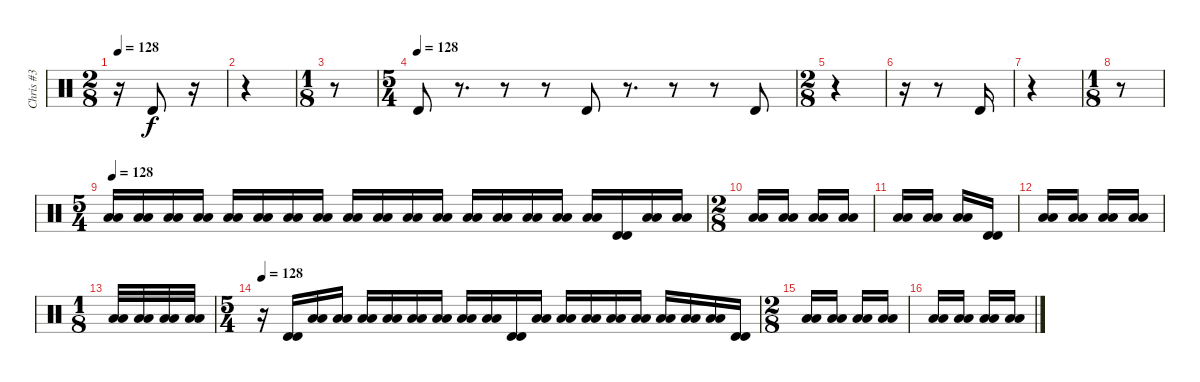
\track ("Chris #3" "Chris #3") {instrument percussion}
\staff {score}
\articulation defaults
\ts (2 8)
\tempo 128
\clef neutral
\ks c
r.16{dy f} "Timbale high (hit)".8 r.16 |
r.4 |
\ts (1 8)
r.8 |
\ts (5 4)
\tempo (128)
"Timbale high (hit)".8 r.8{d} r.8 r.8 "Timbale high (hit)".8 r.8{d} r.8 r.8 "Timbale high (hit)".8 |
\ts (2 8)
r.4 |
r.16 r.8 "Timbale high (hit)".16 |
r.4 |
\ts (1 8)
r.8 |
\ts (5 4)
\tempo 128
("Low Floor Tom (hit)" "Low Floor Tom (hit)").16 ("Low Floor Tom (hit)" "Low Floor Tom (hit)").16 ("Low Floor Tom (hit)" "Low Floor Tom (hit)").16 ("Low Floor Tom (hit)" "Low Floor Tom (hit)").16 ("Low Floor Tom (hit)" "Low Floor Tom (hit)").16 ("Low Floor Tom (hit)" "Low Floor Tom (hit)").16 ("Low Floor Tom (hit)" "Low Floor Tom (hit)").16 ("Low Floor Tom (hit)" "Low Floor Tom (hit)").16 ("Low Floor Tom (hit)" "Low Floor Tom (hit)").16 ("Low Floor Tom (hit)" "Low Floor Tom (hit)").16 ("Low Floor Tom (hit)" "Low Floor Tom (hit)").16 ("Low Floor Tom (hit)" "Low Floor Tom (hit)").16 ("Low Floor Tom (hit)" "Low Floor Tom (hit)").16 ("Low Floor Tom (hit)" "Low Floor Tom (hit)").16 ("Low Floor Tom (hit)" "Low Floor Tom (hit)").16 ("Low Floor Tom (hit)" "Low Floor Tom (hit)").16 ("Low Floor Tom (hit)" "Low Floor Tom (hit)").16 ("Timbale high (hit)" "Timbale high (hit)").16 ("Low Floor Tom (hit)" "Low Floor Tom (hit)").16 ("Low Floor Tom (hit)" "Low Floor Tom (hit)").16 |
\ts (2 8)
("Low Floor Tom (hit)" "Low Floor Tom (hit)").16 ("Low Floor Tom (hit)" "Low Floor Tom (hit)").16 ("Low Floor Tom (hit)" "Low Floor Tom (hit)").16 ("Low Floor Tom (hit)" "Low Floor Tom (hit)").16 |
("Low Floor Tom (hit)" "Low Floor Tom (hit)").16 ("Low Floor Tom (hit)" "Low Floor Tom (hit)").16 ("Low Floor Tom (hit)" "Low Floor Tom (hit)").16 ("Timbale high (hit)" "Timbale high (hit)").16 |
("Low Floor Tom (hit)" "Low Floor Tom (hit)").16 ("Low Floor Tom (hit)" "Low Floor Tom (hit)").16 ("Low Floor Tom (hit)" "Low Floor Tom (hit)").16 ("Low Floor Tom (hit)" "Low Floor Tom (hit)").16 |
\ts (1 8)
("Low Floor Tom (hit)" "Low Floor Tom (hit)").32 ("Low Floor Tom (hit)" "Low Floor Tom (hit)").32 ("Low Floor Tom (hit)" "Low Floor Tom (hit)").32 ("Low Floor Tom (hit)" "Low Floor Tom (hit)").32 |
\ts (5 4)
\tempo 128
r.16 ("Timbale high (hit)" "Timbale high (hit)").16 ("Low Floor Tom (hit)" "Low Floor Tom (hit)").16 ("Low Floor Tom (hit)" "Low Floor Tom (hit)").16 ("Low Floor Tom (hit)" "Low Floor Tom (hit)").16 ("Low Floor Tom (hit)" "Low Floor Tom (hit)").16 ("Low Floor Tom (hit)" "Low Floor Tom (hit)").16 ("Low Floor Tom (hit)" "Low Floor Tom (hit)").16 ("Low Floor Tom (hit)" "Low Floor Tom (hit)").16 ("Low Floor Tom (hit)" "Low Floor Tom (hit)").16 ("Timbale high (hit)" "Timbale high (hit)").16 ("Low Floor Tom (hit)" "Low Floor Tom (hit)").16 ("Low Floor Tom (hit)" "Low Floor Tom (hit)").16 ("Low Floor Tom (hit)" "Low Floor Tom (hit)").16 ("Low Floor Tom (hit)" "Low Floor Tom (hit)").16 ("Low Floor Tom (hit)" "Low Floor Tom (hit)").16 ("Low Floor Tom (hit)" "Low Floor Tom (hit)").16 ("Low Floor Tom (hit)" "Low Floor Tom (hit)").16 ("Low Floor Tom (hit)" "Low Floor Tom (hit)").16 ("Timbale high (hit)" "Timbale high (hit)").16 |
\ts (2 8)
("Low Floor Tom (hit)" "Low Floor Tom (hit)").16 ("Low Floor Tom (hit)" "Low Floor Tom (hit)").16 ("Low Floor Tom (hit)" "Low Floor Tom (hit)").16 ("Low Floor Tom (hit)" "Low Floor Tom (hit)").16 |
("Low Floor Tom (hit)" "Low Floor Tom (hit)").16 ("Low Floor Tom (hit)" "Low Floor Tom (hit)").16 ("Low Floor Tom (hit)" "Low Floor Tom (hit)").16 ("Low Floor Tom (hit)" "Low Floor Tom (hit)").16
